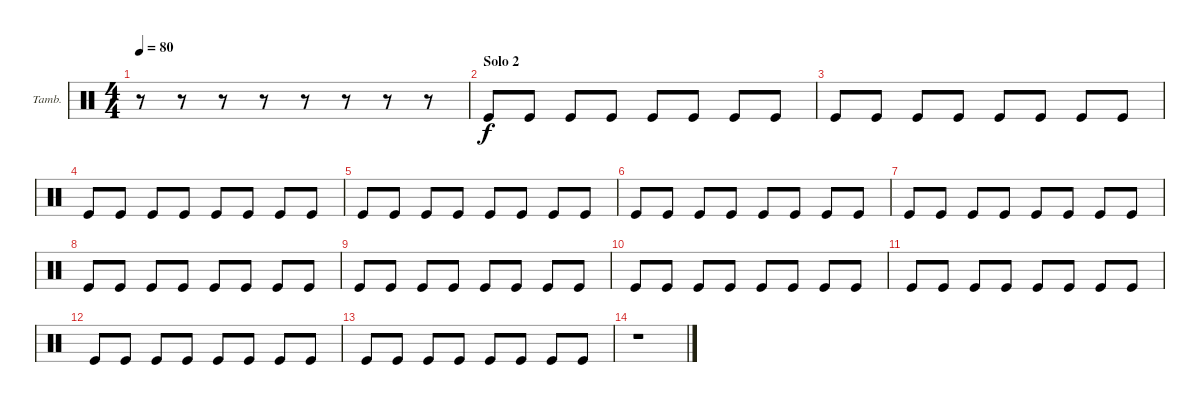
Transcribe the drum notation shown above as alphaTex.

\bracketExtendMode groupsimilarinstruments
\firstSystemTrackNameOrientation horizontal
\otherSystemsTrackNameOrientation horizontal
\chordDiagramsInScore
\track ("Tambourine" "Tamb.") {instrument percussion}
\staff {score}
\articulation defaults
\ts (4 4)
\tempo 80
\clef neutral
\ks c
r.8{dy fff} r.8 r.8 r.8 r.8 r.8 r.8 r.8 |
\section ("" "Solo 2")
"Kick (hit)".8{dy f} "Kick (hit)".8 "Kick (hit)".8 "Kick (hit)".8 "Kick (hit)".8 "Kick (hit)".8 "Kick (hit)".8 "Kick (hit)".8 |
"Kick (hit)".8 "Kick (hit)".8 "Kick (hit)".8 "Kick (hit)".8 "Kick (hit)".8 "Kick (hit)".8 "Kick (hit)".8 "Kick (hit)".8 |
"Kick (hit)".8 "Kick (hit)".8 "Kick (hit)".8 "Kick (hit)".8 "Kick (hit)".8 "Kick (hit)".8 "Kick (hit)".8 "Kick (hit)".8 |
"Kick (hit)".8 "Kick (hit)".8 "Kick (hit)".8 "Kick (hit)".8 "Kick (hit)".8 "Kick (hit)".8 "Kick (hit)".8 "Kick (hit)".8 |
"Kick (hit)".8 "Kick (hit)".8 "Kick (hit)".8 "Kick (hit)".8 "Kick (hit)".8 "Kick (hit)".8 "Kick (hit)".8 "Kick (hit)".8 |
"Kick (hit)".8 "Kick (hit)".8 "Kick (hit)".8 "Kick (hit)".8 "Kick (hit)".8 "Kick (hit)".8 "Kick (hit)".8 "Kick (hit)".8 |
"Kick (hit)".8 "Kick (hit)".8 "Kick (hit)".8 "Kick (hit)".8 "Kick (hit)".8 "Kick (hit)".8 "Kick (hit)".8 "Kick (hit)".8 |
"Kick (hit)".8 "Kick (hit)".8 "Kick (hit)".8 "Kick (hit)".8 "Kick (hit)".8 "Kick (hit)".8 "Kick (hit)".8 "Kick (hit)".8 |
"Kick (hit)".8 "Kick (hit)".8 "Kick (hit)".8 "Kick (hit)".8 "Kick (hit)".8 "Kick (hit)".8 "Kick (hit)".8 "Kick (hit)".8 |
"Kick (hit)".8 "Kick (hit)".8 "Kick (hit)".8 "Kick (hit)".8 "Kick (hit)".8 "Kick (hit)".8 "Kick (hit)".8 "Kick (hit)".8 |
"Kick (hit)".8 "Kick (hit)".8 "Kick (hit)".8 "Kick (hit)".8 "Kick (hit)".8 "Kick (hit)".8 "Kick (hit)".8 "Kick (hit)".8 |
"Kick (hit)".8 "Kick (hit)".8 "Kick (hit)".8 "Kick (hit)".8 "Kick (hit)".8 "Kick (hit)".8 "Kick (hit)".8 "Kick (hit)".8 |
r.1
